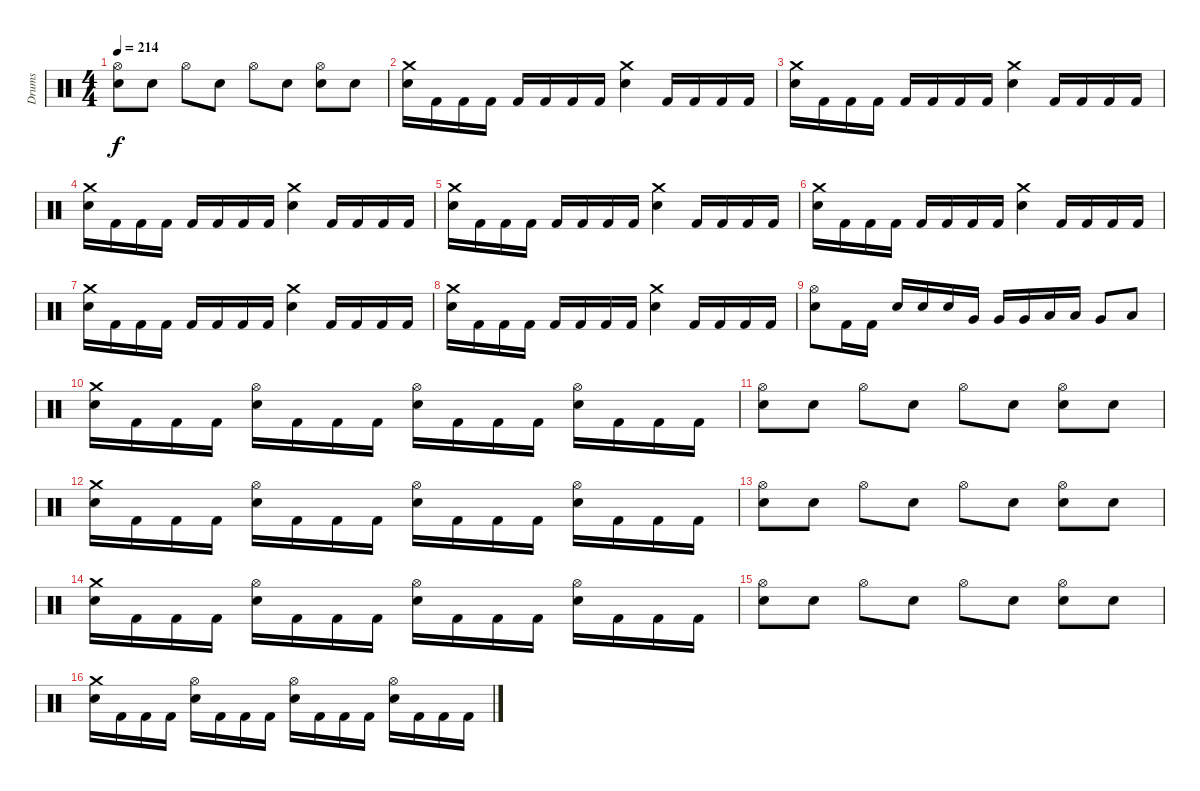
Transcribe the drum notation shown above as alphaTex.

\track ("Drums" "Drums") {instrument percussion}
\staff {score}
\articulation defaults
\ts (4 4)
\tempo 214
\clef neutral
\ks c
("Hi-Hat (open)" "Snare (hit) 2").8{dy f} "Snare (hit) 2".8 "Hi-Hat (open)".8 "Snare (hit) 2".8 "Hi-Hat (open)".8 "Snare (hit) 2".8 ("Hi-Hat (open)" "Snare (hit) 2").8 "Snare (hit) 2".8 |
("Crash medium (hit)" "Snare (hit) 2").16 "Kick (hit) 2".16 "Kick (hit) 2".16 "Kick (hit) 2".16 "Kick (hit) 2".16 "Kick (hit) 2".16 "Kick (hit) 2".16 "Kick (hit) 2".16 ("Crash medium (hit)" "Snare (hit) 2").4 "Kick (hit) 2".16 "Kick (hit) 2".16 "Kick (hit) 2".16 "Kick (hit) 2".16 |
("Crash medium (hit)" "Snare (hit) 2").16 "Kick (hit) 2".16 "Kick (hit) 2".16 "Kick (hit) 2".16 "Kick (hit) 2".16 "Kick (hit) 2".16 "Kick (hit) 2".16 "Kick (hit) 2".16 ("Crash medium (hit)" "Snare (hit) 2").4 "Kick (hit) 2".16 "Kick (hit) 2".16 "Kick (hit) 2".16 "Kick (hit) 2".16 |
("Crash medium (hit)" "Snare (hit) 2").16 "Kick (hit) 2".16 "Kick (hit) 2".16 "Kick (hit) 2".16 "Kick (hit) 2".16 "Kick (hit) 2".16 "Kick (hit) 2".16 "Kick (hit) 2".16 ("Crash medium (hit)" "Snare (hit) 2").4 "Kick (hit) 2".16 "Kick (hit) 2".16 "Kick (hit) 2".16 "Kick (hit) 2".16 |
("Crash medium (hit)" "Snare (hit) 2").16 "Kick (hit) 2".16 "Kick (hit) 2".16 "Kick (hit) 2".16 "Kick (hit) 2".16 "Kick (hit) 2".16 "Kick (hit) 2".16 "Kick (hit) 2".16 ("Crash medium (hit)" "Snare (hit) 2").4 "Kick (hit) 2".16 "Kick (hit) 2".16 "Kick (hit) 2".16 "Kick (hit) 2".16 |
("Crash medium (hit)" "Snare (hit) 2").16 "Kick (hit) 2".16 "Kick (hit) 2".16 "Kick (hit) 2".16 "Kick (hit) 2".16 "Kick (hit) 2".16 "Kick (hit) 2".16 "Kick (hit) 2".16 ("Crash medium (hit)" "Snare (hit) 2").4 "Kick (hit) 2".16 "Kick (hit) 2".16 "Kick (hit) 2".16 "Kick (hit) 2".16 |
("Crash medium (hit)" "Snare (hit) 2").16 "Kick (hit) 2".16 "Kick (hit) 2".16 "Kick (hit) 2".16 "Kick (hit) 2".16 "Kick (hit) 2".16 "Kick (hit) 2".16 "Kick (hit) 2".16 ("Crash medium (hit)" "Snare (hit) 2").4 "Kick (hit) 2".16 "Kick (hit) 2".16 "Kick (hit) 2".16 "Kick (hit) 2".16 |
("Crash medium (hit)" "Snare (hit) 2").16 "Kick (hit) 2".16 "Kick (hit) 2".16 "Kick (hit) 2".16 "Kick (hit) 2".16 "Kick (hit) 2".16 "Kick (hit) 2".16 "Kick (hit) 2".16 ("Crash medium (hit)" "Snare (hit) 2").4 "Kick (hit) 2".16 "Kick (hit) 2".16 "Kick (hit) 2".16 "Kick (hit) 2".16 |
("Hi-Hat (open)" "Snare (hit) 2").8 "Kick (hit) 2".16 "Kick (hit) 2".16 "Snare (hit) 2".16 "Snare (hit) 2".16 "Snare (hit) 2".16 "Very Low Tom (hit)".16 "Very Low Tom (hit)".16 "Very Low Tom (hit)".16 "Low Floor Tom (hit)".16 "Low Floor Tom (hit)".16 "Very Low Tom (hit)".8 "Low Floor Tom (hit)".8 |
("Crash medium (hit)" "Snare (hit) 2").16 "Kick (hit) 2".16 "Kick (hit) 2".16 "Kick (hit) 2".16 ("Hi-Hat (open)" "Snare (hit) 2").16 "Kick (hit) 2".16 "Kick (hit) 2".16 "Kick (hit) 2".16 ("Hi-Hat (open)" "Snare (hit) 2").16 "Kick (hit) 2".16 "Kick (hit) 2".16 "Kick (hit) 2".16 ("Hi-Hat (open)" "Snare (hit) 2").16 "Kick (hit) 2".16 "Kick (hit) 2".16 "Kick (hit) 2".16 |
("Hi-Hat (open)" "Snare (hit) 2").8 "Snare (hit) 2".8 "Hi-Hat (open)".8 "Snare (hit) 2".8 "Hi-Hat (open)".8 "Snare (hit) 2".8 ("Hi-Hat (open)" "Snare (hit) 2").8 "Snare (hit) 2".8 |
("Crash medium (hit)" "Snare (hit) 2").16 "Kick (hit) 2".16 "Kick (hit) 2".16 "Kick (hit) 2".16 ("Hi-Hat (open)" "Snare (hit) 2").16 "Kick (hit) 2".16 "Kick (hit) 2".16 "Kick (hit) 2".16 ("Hi-Hat (open)" "Snare (hit) 2").16 "Kick (hit) 2".16 "Kick (hit) 2".16 "Kick (hit) 2".16 ("Hi-Hat (open)" "Snare (hit) 2").16 "Kick (hit) 2".16 "Kick (hit) 2".16 "Kick (hit) 2".16 |
("Hi-Hat (open)" "Snare (hit) 2").8 "Snare (hit) 2".8 "Hi-Hat (open)".8 "Snare (hit) 2".8 "Hi-Hat (open)".8 "Snare (hit) 2".8 ("Hi-Hat (open)" "Snare (hit) 2").8 "Snare (hit) 2".8 |
("Crash medium (hit)" "Snare (hit) 2").16 "Kick (hit) 2".16 "Kick (hit) 2".16 "Kick (hit) 2".16 ("Hi-Hat (open)" "Snare (hit) 2").16 "Kick (hit) 2".16 "Kick (hit) 2".16 "Kick (hit) 2".16 ("Hi-Hat (open)" "Snare (hit) 2").16 "Kick (hit) 2".16 "Kick (hit) 2".16 "Kick (hit) 2".16 ("Hi-Hat (open)" "Snare (hit) 2").16 "Kick (hit) 2".16 "Kick (hit) 2".16 "Kick (hit) 2".16 |
("Hi-Hat (open)" "Snare (hit) 2").8 "Snare (hit) 2".8 "Hi-Hat (open)".8 "Snare (hit) 2".8 "Hi-Hat (open)".8 "Snare (hit) 2".8 ("Hi-Hat (open)" "Snare (hit) 2").8 "Snare (hit) 2".8 |
("Crash medium (hit)" "Snare (hit) 2").16 "Kick (hit) 2".16 "Kick (hit) 2".16 "Kick (hit) 2".16 ("Hi-Hat (open)" "Snare (hit) 2").16 "Kick (hit) 2".16 "Kick (hit) 2".16 "Kick (hit) 2".16 ("Hi-Hat (open)" "Snare (hit) 2").16 "Kick (hit) 2".16 "Kick (hit) 2".16 "Kick (hit) 2".16 ("Hi-Hat (open)" "Snare (hit) 2").16 "Kick (hit) 2".16 "Kick (hit) 2".16 "Kick (hit) 2".16
